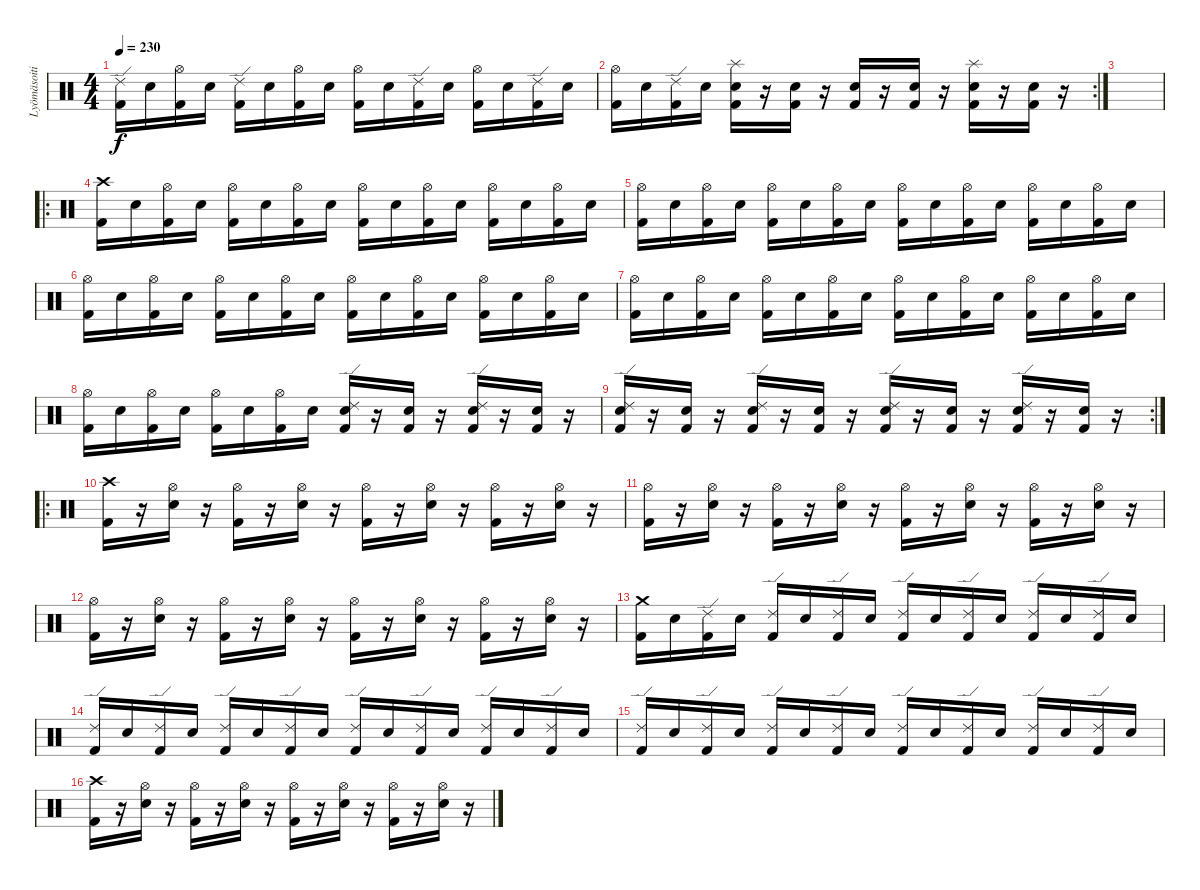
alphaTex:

\track ("Lyömäsoitin" "Lyömäsoiti") {instrument percussion}
\staff {score}
\articulation defaults
\ts (4 4)
\tempo 230
\clef neutral
\ks c
("Ride (edge) 2" "Kick (hit) 2").16{dy f} "Snare (hit) 2".16 ("Hi-Hat (open)" "Kick (hit) 2").16 "Snare (hit) 2".16 ("Ride (edge) 2" "Kick (hit) 2").16 "Snare (hit) 2".16 ("Hi-Hat (open)" "Kick (hit) 2").16 "Snare (hit) 2".16 ("Hi-Hat (open)" "Kick (hit) 2").16 "Snare (hit) 2".16 ("Ride (edge) 2" "Kick (hit) 2").16 "Snare (hit) 2".16 ("Hi-Hat (open)" "Kick (hit) 2").16 "Snare (hit) 2".16 ("Ride (edge) 2" "Kick (hit) 2").16 "Snare (hit) 2".16 |
\rc 2
("Hi-Hat (open)" "Kick (hit) 2").16 "Snare (hit) 2".16 ("Ride (edge) 2" "Kick (hit) 2").16 "Snare (hit) 2".16 ("Splash (hit)" "Snare (hit) 2" "Kick (hit) 2").16 r.16 ("Snare (hit) 2" "Kick (hit) 2").16 r.16 ("Snare (hit) 2" "Kick (hit) 2").16 r.16 ("Snare (hit) 2" "Kick (hit) 2").16 r.16 ("Splash (hit)" "Snare (hit) 2" "Kick (hit) 2").16 r.16 ("Snare (hit) 2" "Kick (hit) 2").16 r.16 |
|
\ro
("Crash high (hit)" "Kick (hit) 2").16 "Snare (hit) 2".16 ("Hi-Hat (open)" "Kick (hit) 2").16 "Snare (hit) 2".16 ("Hi-Hat (open)" "Kick (hit) 2").16 "Snare (hit) 2".16 ("Hi-Hat (open)" "Kick (hit) 2").16 "Snare (hit) 2".16 ("Hi-Hat (open)" "Kick (hit) 2").16 "Snare (hit) 2".16 ("Hi-Hat (open)" "Kick (hit) 2").16 "Snare (hit) 2".16 ("Hi-Hat (open)" "Kick (hit) 2").16 "Snare (hit) 2".16 ("Hi-Hat (open)" "Kick (hit) 2").16 "Snare (hit) 2".16 |
("Hi-Hat (open)" "Kick (hit) 2").16 "Snare (hit) 2".16 ("Hi-Hat (open)" "Kick (hit) 2").16 "Snare (hit) 2".16 ("Hi-Hat (open)" "Kick (hit) 2").16 "Snare (hit) 2".16 ("Hi-Hat (open)" "Kick (hit) 2").16 "Snare (hit) 2".16 ("Hi-Hat (open)" "Kick (hit) 2").16 "Snare (hit) 2".16 ("Hi-Hat (open)" "Kick (hit) 2").16 "Snare (hit) 2".16 ("Hi-Hat (open)" "Kick (hit) 2").16 "Snare (hit) 2".16 ("Hi-Hat (open)" "Kick (hit) 2").16 "Snare (hit) 2".16 |
("Hi-Hat (open)" "Kick (hit) 2").16 "Snare (hit) 2".16 ("Hi-Hat (open)" "Kick (hit) 2").16 "Snare (hit) 2".16 ("Hi-Hat (open)" "Kick (hit) 2").16 "Snare (hit) 2".16 ("Hi-Hat (open)" "Kick (hit) 2").16 "Snare (hit) 2".16 ("Hi-Hat (open)" "Kick (hit) 2").16 "Snare (hit) 2".16 ("Hi-Hat (open)" "Kick (hit) 2").16 "Snare (hit) 2".16 ("Hi-Hat (open)" "Kick (hit) 2").16 "Snare (hit) 2".16 ("Hi-Hat (open)" "Kick (hit) 2").16 "Snare (hit) 2".16 |
("Hi-Hat (open)" "Kick (hit) 2").16 "Snare (hit) 2".16 ("Hi-Hat (open)" "Kick (hit) 2").16 "Snare (hit) 2".16 ("Hi-Hat (open)" "Kick (hit) 2").16 "Snare (hit) 2".16 ("Hi-Hat (open)" "Kick (hit) 2").16 "Snare (hit) 2".16 ("Hi-Hat (open)" "Kick (hit) 2").16 "Snare (hit) 2".16 ("Hi-Hat (open)" "Kick (hit) 2").16 "Snare (hit) 2".16 ("Hi-Hat (open)" "Kick (hit) 2").16 "Snare (hit) 2".16 ("Hi-Hat (open)" "Kick (hit) 2").16 "Snare (hit) 2".16 |
("Hi-Hat (open)" "Kick (hit) 2").16 "Snare (hit) 2".16 ("Hi-Hat (open)" "Kick (hit) 2").16 "Snare (hit) 2".16 ("Hi-Hat (open)" "Kick (hit) 2").16 "Snare (hit) 2".16 ("Hi-Hat (open)" "Kick (hit) 2").16 "Snare (hit) 2".16 ("Ride (edge) 2" "Snare (hit) 2" "Kick (hit) 2").16 r.16 ("Snare (hit) 2" "Kick (hit) 2").16 r.16 ("Ride (edge) 2" "Snare (hit) 2" "Kick (hit) 2").16 r.16 ("Snare (hit) 2" "Kick (hit) 2").16 r.16 |
\rc 2
("Ride (edge) 2" "Snare (hit) 2" "Kick (hit) 2").16 r.16 ("Snare (hit) 2" "Kick (hit) 2").16 r.16 ("Ride (edge) 2" "Snare (hit) 2" "Kick (hit) 2").16 r.16 ("Snare (hit) 2" "Kick (hit) 2").16 r.16 ("Ride (edge) 2" "Snare (hit) 2" "Kick (hit) 2").16 r.16 ("Snare (hit) 2" "Kick (hit) 2").16 r.16 ("Ride (edge) 2" "Snare (hit) 2" "Kick (hit) 2").16 r.16 ("Snare (hit) 2" "Kick (hit) 2").16 r.16 |
\ro
("Crash high (hit)" "Kick (hit) 2").16 r.16 ("Hi-Hat (open)" "Snare (hit) 2").16 r.16 ("Hi-Hat (open)" "Kick (hit) 2").16 r.16 ("Hi-Hat (open)" "Snare (hit) 2").16 r.16 ("Hi-Hat (open)" "Kick (hit) 2").16 r.16 ("Hi-Hat (open)" "Snare (hit) 2").16 r.16 ("Hi-Hat (open)" "Kick (hit) 2").16 r.16 ("Hi-Hat (open)" "Snare (hit) 2").16 r.16 |
("Hi-Hat (open)" "Kick (hit) 2").16 r.16 ("Hi-Hat (open)" "Snare (hit) 2").16 r.16 ("Hi-Hat (open)" "Kick (hit) 2").16 r.16 ("Hi-Hat (open)" "Snare (hit) 2").16 r.16 ("Hi-Hat (open)" "Kick (hit) 2").16 r.16 ("Hi-Hat (open)" "Snare (hit) 2").16 r.16 ("Hi-Hat (open)" "Kick (hit) 2").16 r.16 ("Hi-Hat (open)" "Snare (hit) 2").16 r.16 |
("Hi-Hat (open)" "Kick (hit) 2").16 r.16 ("Hi-Hat (open)" "Snare (hit) 2").16 r.16 ("Hi-Hat (open)" "Kick (hit) 2").16 r.16 ("Hi-Hat (open)" "Snare (hit) 2").16 r.16 ("Hi-Hat (open)" "Kick (hit) 2").16 r.16 ("Hi-Hat (open)" "Snare (hit) 2").16 r.16 ("Hi-Hat (open)" "Kick (hit) 2").16 r.16 ("Hi-Hat (open)" "Snare (hit) 2").16 r.16 |
("Crash medium (hit)" "Kick (hit) 2").16 "Snare (hit) 2".16 ("Ride (edge) 2" "Kick (hit) 2").16 "Snare (hit) 2".16 ("Ride (edge) 2" "Kick (hit) 2").16 "Snare (hit) 2".16 ("Ride (edge) 2" "Kick (hit) 2").16 "Snare (hit) 2".16 ("Ride (edge) 2" "Kick (hit) 2").16 "Snare (hit) 2".16 ("Ride (edge) 2" "Kick (hit) 2").16 "Snare (hit) 2".16 ("Ride (edge) 2" "Kick (hit) 2").16 "Snare (hit) 2".16 ("Ride (edge) 2" "Kick (hit) 2").16 "Snare (hit) 2".16 |
("Ride (edge) 2" "Kick (hit) 2").16 "Snare (hit) 2".16 ("Ride (edge) 2" "Kick (hit) 2").16 "Snare (hit) 2".16 ("Ride (edge) 2" "Kick (hit) 2").16 "Snare (hit) 2".16 ("Ride (edge) 2" "Kick (hit) 2").16 "Snare (hit) 2".16 ("Ride (edge) 2" "Kick (hit) 2").16 "Snare (hit) 2".16 ("Ride (edge) 2" "Kick (hit) 2").16 "Snare (hit) 2".16 ("Ride (edge) 2" "Kick (hit) 2").16 "Snare (hit) 2".16 ("Ride (edge) 2" "Kick (hit) 2").16 "Snare (hit) 2".16 |
("Ride (edge) 2" "Kick (hit) 2").16 "Snare (hit) 2".16 ("Ride (edge) 2" "Kick (hit) 2").16 "Snare (hit) 2".16 ("Ride (edge) 2" "Kick (hit) 2").16 "Snare (hit) 2".16 ("Ride (edge) 2" "Kick (hit) 2").16 "Snare (hit) 2".16 ("Ride (edge) 2" "Kick (hit) 2").16 "Snare (hit) 2".16 ("Ride (edge) 2" "Kick (hit) 2").16 "Snare (hit) 2".16 ("Ride (edge) 2" "Kick (hit) 2").16 "Snare (hit) 2".16 ("Ride (edge) 2" "Kick (hit) 2").16 "Snare (hit) 2".16 |
("Crash high (hit)" "Kick (hit) 2").16 r.16 ("Hi-Hat (open)" "Snare (hit) 2").16 r.16 ("Hi-Hat (open)" "Kick (hit) 2").16 r.16 ("Hi-Hat (open)" "Snare (hit) 2").16 r.16 ("Hi-Hat (open)" "Kick (hit) 2").16 r.16 ("Hi-Hat (open)" "Snare (hit) 2").16 r.16 ("Hi-Hat (open)" "Kick (hit) 2").16 r.16 ("Hi-Hat (open)" "Snare (hit) 2").16 r.16
